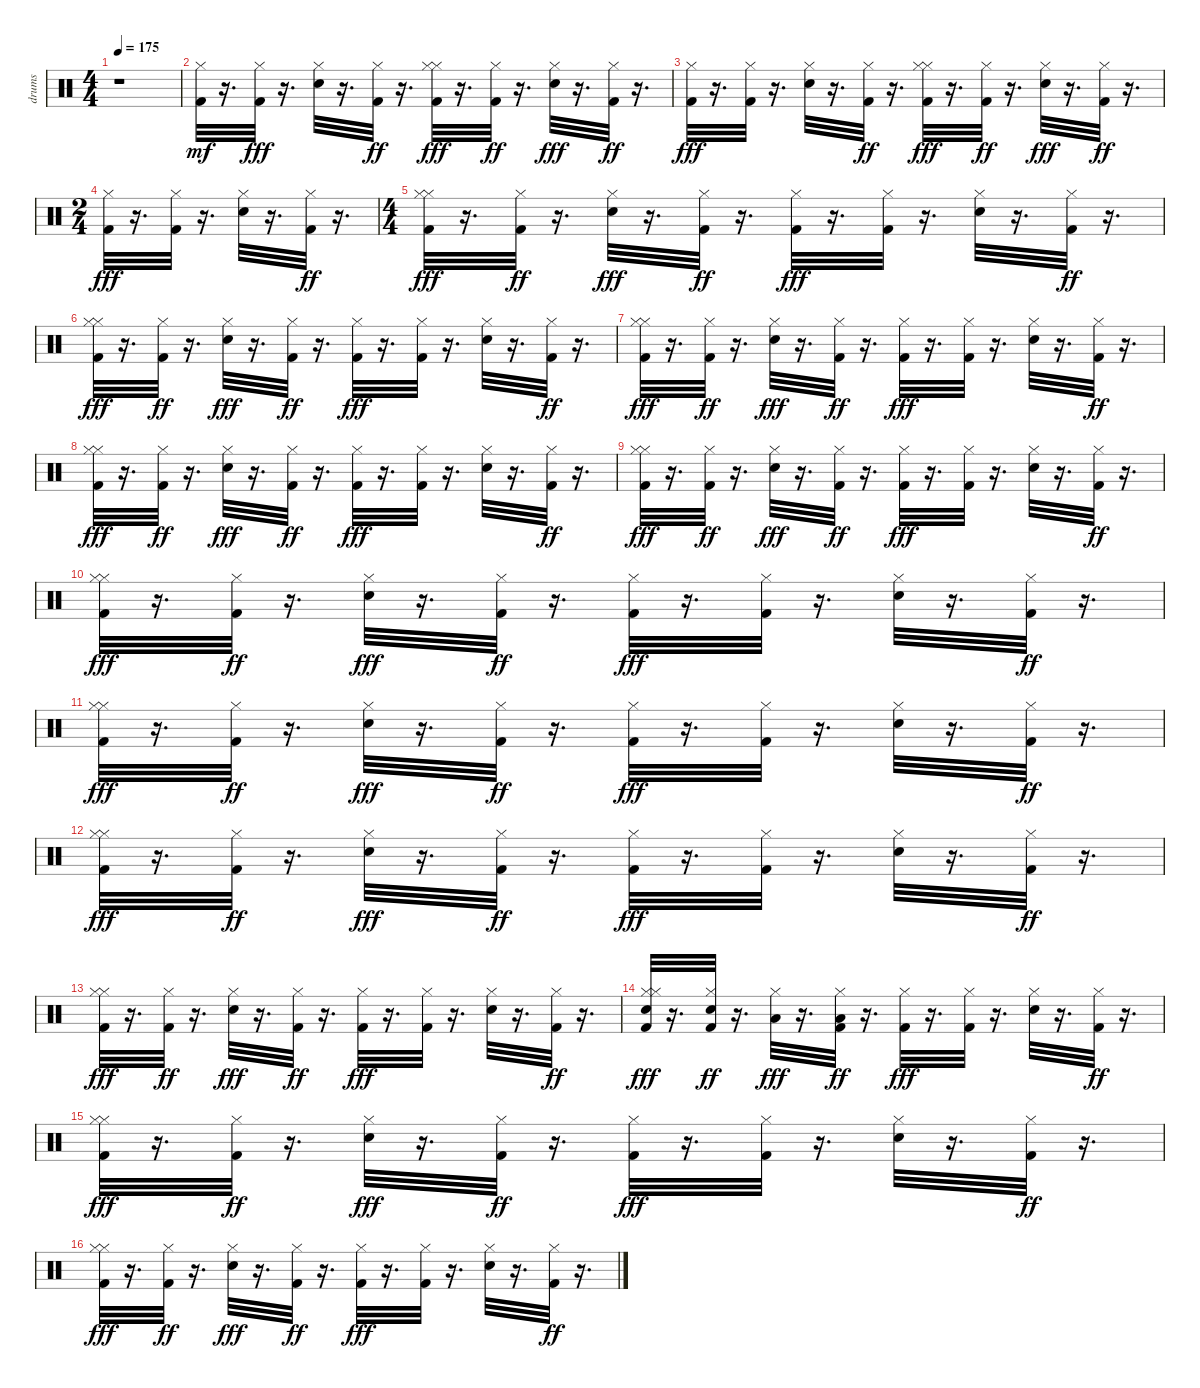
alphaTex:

\track ("drums" "drums") {instrument percussion}
\staff {score}
\articulation defaults
\ts (4 4)
\tempo 175
\clef neutral
\ks c
r.1{dy mf} |
("Kick (hit) 2" "Hi-Hat (closed)").32 r.16{d} ("Hi-Hat (closed)" "Kick (hit) 2").32{dy fff} r.16{d} ("Hi-Hat (closed)" "Electric Snare (hit)").32 r.16{d} ("Hi-Hat (closed)" "Kick (hit) 2").32{dy ff} r.16{d} ("Hi-Hat (closed)" "Hi-Hat (closed)" "Kick (hit) 2").32{dy fff} r.16{d} ("Hi-Hat (closed)" "Kick (hit) 2").32{dy ff} r.16{d} ("Hi-Hat (closed)" "Electric Snare (hit)").32{dy fff} r.16{d} ("Hi-Hat (closed)" "Kick (hit) 2").32{dy ff} r.16{d} |
("Hi-Hat (closed)" "Kick (hit) 2").32{dy fff} r.16{d} ("Hi-Hat (closed)" "Kick (hit) 2").32 r.16{d} ("Hi-Hat (closed)" "Electric Snare (hit)").32 r.16{d} ("Hi-Hat (closed)" "Kick (hit) 2").32{dy ff} r.16{d} ("Hi-Hat (closed)" "Hi-Hat (closed)" "Kick (hit) 2").32{dy fff} r.16{d} ("Hi-Hat (closed)" "Kick (hit) 2").32{dy ff} r.16{d} ("Hi-Hat (closed)" "Electric Snare (hit)").32{dy fff} r.16{d} ("Hi-Hat (closed)" "Kick (hit) 2").32{dy ff} r.16{d} |
\ts (2 4)
("Hi-Hat (closed)" "Kick (hit) 2").32{dy fff} r.16{d} ("Hi-Hat (closed)" "Kick (hit) 2").32 r.16{d} ("Hi-Hat (closed)" "Electric Snare (hit)").32 r.16{d} ("Hi-Hat (closed)" "Kick (hit) 2").32{dy ff} r.16{d} |
\ts (4 4)
("Hi-Hat (closed)" "Hi-Hat (closed)" "Kick (hit) 2").32{dy fff} r.16{d} ("Hi-Hat (closed)" "Kick (hit) 2").32{dy ff} r.16{d} ("Hi-Hat (closed)" "Electric Snare (hit)").32{dy fff} r.16{d} ("Hi-Hat (closed)" "Kick (hit) 2").32{dy ff} r.16{d} ("Hi-Hat (closed)" "Kick (hit) 2").32{dy fff} r.16{d} ("Hi-Hat (closed)" "Kick (hit) 2").32 r.16{d} ("Hi-Hat (closed)" "Electric Snare (hit)").32 r.16{d} ("Hi-Hat (closed)" "Kick (hit) 2").32{dy ff} r.16{d} |
("Hi-Hat (closed)" "Hi-Hat (closed)" "Kick (hit) 2").32{dy fff} r.16{d} ("Hi-Hat (closed)" "Kick (hit) 2").32{dy ff} r.16{d} ("Hi-Hat (closed)" "Electric Snare (hit)").32{dy fff} r.16{d} ("Hi-Hat (closed)" "Kick (hit) 2").32{dy ff} r.16{d} ("Hi-Hat (closed)" "Kick (hit) 2").32{dy fff} r.16{d} ("Hi-Hat (closed)" "Kick (hit) 2").32 r.16{d} ("Hi-Hat (closed)" "Electric Snare (hit)").32 r.16{d} ("Hi-Hat (closed)" "Kick (hit) 2").32{dy ff} r.16{d} |
("Hi-Hat (closed)" "Hi-Hat (closed)" "Kick (hit) 2").32{dy fff} r.16{d} ("Hi-Hat (closed)" "Kick (hit) 2").32{dy ff} r.16{d} ("Hi-Hat (closed)" "Electric Snare (hit)").32{dy fff} r.16{d} ("Hi-Hat (closed)" "Kick (hit) 2").32{dy ff} r.16{d} ("Hi-Hat (closed)" "Kick (hit) 2").32{dy fff} r.16{d} ("Hi-Hat (closed)" "Kick (hit) 2").32 r.16{d} ("Hi-Hat (closed)" "Electric Snare (hit)").32 r.16{d} ("Hi-Hat (closed)" "Kick (hit) 2").32{dy ff} r.16{d} |
("Hi-Hat (closed)" "Hi-Hat (closed)" "Kick (hit) 2").32{dy fff} r.16{d} ("Hi-Hat (closed)" "Kick (hit) 2").32{dy ff} r.16{d} ("Hi-Hat (closed)" "Electric Snare (hit)").32{dy fff} r.16{d} ("Hi-Hat (closed)" "Kick (hit) 2").32{dy ff} r.16{d} ("Hi-Hat (closed)" "Kick (hit) 2").32{dy fff} r.16{d} ("Hi-Hat (closed)" "Kick (hit) 2").32 r.16{d} ("Hi-Hat (closed)" "Electric Snare (hit)").32 r.16{d} ("Hi-Hat (closed)" "Kick (hit) 2").32{dy ff} r.16{d} |
("Hi-Hat (closed)" "Hi-Hat (closed)" "Kick (hit) 2").32{dy fff} r.16{d} ("Hi-Hat (closed)" "Kick (hit) 2").32{dy ff} r.16{d} ("Hi-Hat (closed)" "Electric Snare (hit)").32{dy fff} r.16{d} ("Hi-Hat (closed)" "Kick (hit) 2").32{dy ff} r.16{d} ("Hi-Hat (closed)" "Kick (hit) 2").32{dy fff} r.16{d} ("Hi-Hat (closed)" "Kick (hit) 2").32 r.16{d} ("Hi-Hat (closed)" "Electric Snare (hit)").32 r.16{d} ("Hi-Hat (closed)" "Kick (hit) 2").32{dy ff} r.16{d} |
("Hi-Hat (closed)" "Hi-Hat (closed)" "Kick (hit) 2").32{dy fff} r.16{d} ("Hi-Hat (closed)" "Kick (hit) 2").32{dy ff} r.16{d} ("Hi-Hat (closed)" "Electric Snare (hit)").32{dy fff} r.16{d} ("Hi-Hat (closed)" "Kick (hit) 2").32{dy ff} r.16{d} ("Hi-Hat (closed)" "Kick (hit) 2").32{dy fff} r.16{d} ("Hi-Hat (closed)" "Kick (hit) 2").32 r.16{d} ("Hi-Hat (closed)" "Electric Snare (hit)").32 r.16{d} ("Hi-Hat (closed)" "Kick (hit) 2").32{dy ff} r.16{d} |
("Hi-Hat (closed)" "Hi-Hat (closed)" "Kick (hit) 2").32{dy fff} r.16{d} ("Hi-Hat (closed)" "Kick (hit) 2").32{dy ff} r.16{d} ("Hi-Hat (closed)" "Electric Snare (hit)").32{dy fff} r.16{d} ("Hi-Hat (closed)" "Kick (hit) 2").32{dy ff} r.16{d} ("Hi-Hat (closed)" "Kick (hit) 2").32{dy fff} r.16{d} ("Hi-Hat (closed)" "Kick (hit) 2").32 r.16{d} ("Hi-Hat (closed)" "Electric Snare (hit)").32 r.16{d} ("Hi-Hat (closed)" "Kick (hit) 2").32{dy ff} r.16{d} |
("Hi-Hat (closed)" "Hi-Hat (closed)" "Kick (hit) 2").32{dy fff} r.16{d} ("Hi-Hat (closed)" "Kick (hit) 2").32{dy ff} r.16{d} ("Hi-Hat (closed)" "Electric Snare (hit)").32{dy fff} r.16{d} ("Hi-Hat (closed)" "Kick (hit) 2").32{dy ff} r.16{d} ("Hi-Hat (closed)" "Kick (hit) 2").32{dy fff} r.16{d} ("Hi-Hat (closed)" "Kick (hit) 2").32 r.16{d} ("Hi-Hat (closed)" "Electric Snare (hit)").32 r.16{d} ("Hi-Hat (closed)" "Kick (hit) 2").32{dy ff} r.16{d} |
("Hi-Hat (closed)" "Hi-Hat (closed)" "Kick (hit) 2").32{dy fff} r.16{d} ("Hi-Hat (closed)" "Kick (hit) 2").32{dy ff} r.16{d} ("Hi-Hat (closed)" "Electric Snare (hit)").32{dy fff} r.16{d} ("Hi-Hat (closed)" "Kick (hit) 2").32{dy ff} r.16{d} ("Hi-Hat (closed)" "Kick (hit) 2").32{dy fff} r.16{d} ("Hi-Hat (closed)" "Kick (hit) 2").32 r.16{d} ("Hi-Hat (closed)" "Electric Snare (hit)").32 r.16{d} ("Hi-Hat (closed)" "Kick (hit) 2").32{dy ff} r.16{d} |
("Hi-Hat (closed)" "Hi-Hat (closed)" "Electric Snare (hit)" "Kick (hit) 2").32{dy fff} r.16{d} ("Hi-Hat (closed)" "Electric Snare (hit)" "Kick (hit) 2").32{dy ff} r.16{d} ("Hi-Hat (closed)" "Low Tom (hit)").32{dy fff} r.16{d} ("Hi-Hat (closed)" "Low Tom (hit)" "Kick (hit) 2").32{dy ff} r.16{d} ("Hi-Hat (closed)" "Kick (hit) 2").32{dy fff} r.16{d} ("Hi-Hat (closed)" "Kick (hit) 2").32 r.16{d} ("Hi-Hat (closed)" "Electric Snare (hit)").32 r.16{d} ("Hi-Hat (closed)" "Kick (hit) 2").32{dy ff} r.16{d} |
("Hi-Hat (closed)" "Hi-Hat (closed)" "Kick (hit) 2").32{dy fff} r.16{d} ("Hi-Hat (closed)" "Kick (hit) 2").32{dy ff} r.16{d} ("Hi-Hat (closed)" "Electric Snare (hit)").32{dy fff} r.16{d} ("Hi-Hat (closed)" "Kick (hit) 2").32{dy ff} r.16{d} ("Hi-Hat (closed)" "Kick (hit) 2").32{dy fff} r.16{d} ("Hi-Hat (closed)" "Kick (hit) 2").32 r.16{d} ("Hi-Hat (closed)" "Electric Snare (hit)").32 r.16{d} ("Hi-Hat (closed)" "Kick (hit) 2").32{dy ff} r.16{d} |
("Hi-Hat (closed)" "Hi-Hat (closed)" "Kick (hit) 2").32{dy fff} r.16{d} ("Hi-Hat (closed)" "Kick (hit) 2").32{dy ff} r.16{d} ("Hi-Hat (closed)" "Electric Snare (hit)").32{dy fff} r.16{d} ("Hi-Hat (closed)" "Kick (hit) 2").32{dy ff} r.16{d} ("Hi-Hat (closed)" "Kick (hit) 2").32{dy fff} r.16{d} ("Hi-Hat (closed)" "Kick (hit) 2").32 r.16{d} ("Hi-Hat (closed)" "Electric Snare (hit)").32 r.16{d} ("Hi-Hat (closed)" "Kick (hit) 2").32{dy ff} r.16{d}
